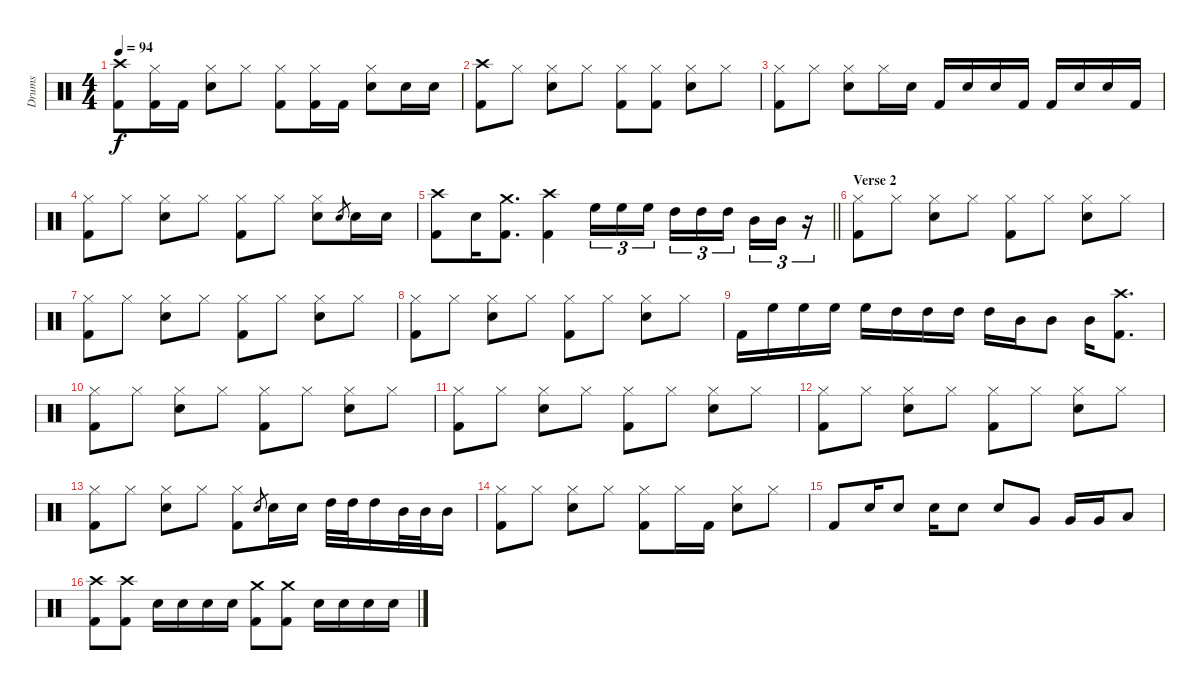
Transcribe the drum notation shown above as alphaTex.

\track ("Drums" "Drums") {instrument percussion}
\staff {score}
\articulation defaults
\ts (4 4)
\tempo 94
\clef neutral
\ks c
("Crash high (hit)" "Kick (hit) 2").8{dy f} ("Hi-Hat (closed)" "Kick (hit) 2").16 "Kick (hit) 2".16 ("Hi-Hat (closed)" "Snare (hit) 2").8 "Hi-Hat (closed)".8 ("Hi-Hat (closed)" "Kick (hit) 2").8 ("Hi-Hat (closed)" "Kick (hit) 2").16 "Kick (hit) 2".16 ("Hi-Hat (closed)" "Snare (hit) 2").8 "Snare (hit) 2".16 "Snare (hit) 2".16 |
("Crash high (hit)" "Kick (hit) 2").8 "Hi-Hat (closed)".8 ("Hi-Hat (closed)" "Snare (hit) 2").8 "Hi-Hat (closed)".8 ("Hi-Hat (closed)" "Kick (hit) 2").8 ("Hi-Hat (closed)" "Kick (hit) 2").8 ("Hi-Hat (closed)" "Snare (hit) 2").8 "Hi-Hat (closed)".8 |
("Hi-Hat (closed)" "Kick (hit) 2").8 "Hi-Hat (closed)".8 ("Hi-Hat (closed)" "Snare (hit) 2").8 "Hi-Hat (closed)".16 "Snare (hit) 2".16 "Kick (hit) 2".16 "Snare (hit) 2".16 "Snare (hit) 2".16 "Kick (hit) 2".16 "Kick (hit) 2".16 "Snare (hit) 2".16 "Snare (hit) 2".16 "Kick (hit) 2".16 |
("Hi-Hat (closed)" "Kick (hit) 2").8 "Hi-Hat (closed)".8 ("Hi-Hat (closed)" "Snare (hit) 2").8 "Hi-Hat (closed)".8 ("Hi-Hat (closed)" "Kick (hit) 2").8 "Hi-Hat (closed)".8 ("Hi-Hat (closed)" "Snare (hit) 2").8 "Snare (hit) 2".8{gr} "Snare (hit) 2".16 "Snare (hit) 2".16 |
\barLineRight lightlight
("Crash high (hit)" "Kick (hit) 2").8 "Snare (hit) 2".16 ("Crash medium (hit)" "Kick (hit) 2").8{d} ("Crash high (hit)" "Kick (hit) 2").4 "High Floor Tom (hit)".16{tu (3 2)} "High Floor Tom (hit)".16{tu (3 2)} "High Floor Tom (hit)".16{tu (3 2)} "High Tom (hit)".16{tu (3 2)} "High Tom (hit)".16{tu (3 2)} "High Tom (hit)".16{tu (3 2)} "Mid Tom (hit)".16{tu (3 2)} "Mid Tom (hit)".16{tu (3 2)} r.16{tu (3 2)} |
\section ("" "Verse 2")
("Hi-Hat (closed)" "Kick (hit) 2").8 "Hi-Hat (closed)".8 ("Hi-Hat (closed)" "Snare (hit) 2").8 "Hi-Hat (closed)".8 ("Hi-Hat (closed)" "Kick (hit) 2").8 "Hi-Hat (closed)".8 ("Hi-Hat (closed)" "Snare (hit) 2").8 "Hi-Hat (closed)".8 |
("Hi-Hat (closed)" "Kick (hit) 2").8 "Hi-Hat (closed)".8 ("Hi-Hat (closed)" "Snare (hit) 2").8 "Hi-Hat (closed)".8 ("Hi-Hat (closed)" "Kick (hit) 2").8 "Hi-Hat (closed)".8 ("Hi-Hat (closed)" "Snare (hit) 2").8 "Hi-Hat (closed)".8 |
("Hi-Hat (closed)" "Kick (hit) 2").8 "Hi-Hat (closed)".8 ("Hi-Hat (closed)" "Snare (hit) 2").8 "Hi-Hat (closed)".8 ("Hi-Hat (closed)" "Kick (hit) 2").8 "Hi-Hat (closed)".8 ("Hi-Hat (closed)" "Snare (hit) 2").8 "Hi-Hat (closed)".8 |
"Kick (hit) 2".16 "High Floor Tom (hit)".16 "High Floor Tom (hit)".16 "High Floor Tom (hit)".16 "High Floor Tom (hit)".16 "High Tom (hit)".16 "High Tom (hit)".16 "High Tom (hit)".16 "High Tom (hit)".16 "Mid Tom (hit)".16 "Mid Tom (hit)".8 "Mid Tom (hit)".16 ("Crash high (hit)" "Kick (hit) 2").8{d} |
("Hi-Hat (closed)" "Kick (hit) 2").8 "Hi-Hat (closed)".8 ("Hi-Hat (closed)" "Snare (hit) 2").8 "Hi-Hat (closed)".8 ("Hi-Hat (closed)" "Kick (hit) 2").8 "Hi-Hat (closed)".8 ("Hi-Hat (closed)" "Snare (hit) 2").8 "Hi-Hat (closed)".8 |
("Hi-Hat (closed)" "Kick (hit) 2").8 "Hi-Hat (closed)".8 ("Hi-Hat (closed)" "Snare (hit) 2").8 "Hi-Hat (closed)".8 ("Hi-Hat (closed)" "Kick (hit) 2").8 "Hi-Hat (closed)".8 ("Hi-Hat (closed)" "Snare (hit) 2").8 "Hi-Hat (closed)".8 |
("Hi-Hat (closed)" "Kick (hit) 2").8 "Hi-Hat (closed)".8 ("Hi-Hat (closed)" "Snare (hit) 2").8 "Hi-Hat (closed)".8 ("Hi-Hat (closed)" "Kick (hit) 2").8 "Hi-Hat (closed)".8 ("Hi-Hat (closed)" "Snare (hit) 2").8 "Hi-Hat (closed)".8 |
("Hi-Hat (closed)" "Kick (hit) 2").8 "Hi-Hat (closed)".8 ("Hi-Hat (closed)" "Snare (hit) 2").8 "Hi-Hat (closed)".8 ("Hi-Hat (closed)" "Kick (hit) 2").8 "Snare (hit) 2".8{gr} "Snare (hit) 2".16 "Snare (hit) 2".16 "High Tom (hit)".32 "High Tom (hit)".32 "High Tom (hit)".16 "Mid Tom (hit)".32 "Mid Tom (hit)".32 "Mid Tom (hit)".16 |
("Hi-Hat (closed)" "Kick (hit) 2").8 "Hi-Hat (closed)".8 ("Hi-Hat (closed)" "Snare (hit) 2").8 "Hi-Hat (closed)".8 ("Hi-Hat (closed)" "Kick (hit) 2").8 "Hi-Hat (closed)".16 "Kick (hit) 2".16 ("Hi-Hat (closed)" "Snare (hit) 2").8 "Hi-Hat (closed)".8 |
"Kick (hit) 2".8 "Snare (hit) 2".16 "Snare (hit) 2".8 "Snare (hit) 2".16 "Snare (hit) 2".8 "Snare (hit) 2".8 "Very Low Tom (hit)".8 "Very Low Tom (hit)".16 "Very Low Tom (hit)".16 "Low Floor Tom (hit)".8 |
("Crash high (hit)" "Kick (hit) 2").8 ("Crash high (hit)" "Kick (hit) 2").8 "Snare (hit) 2".16 "Snare (hit) 2".16 "Snare (hit) 2".16 "Snare (hit) 2".16 ("Crash medium (hit)" "Kick (hit) 2").8 ("Crash medium (hit)" "Kick (hit) 2").8 "Snare (hit) 2".16 "Snare (hit) 2".16 "Snare (hit) 2".16 "Snare (hit) 2".16
